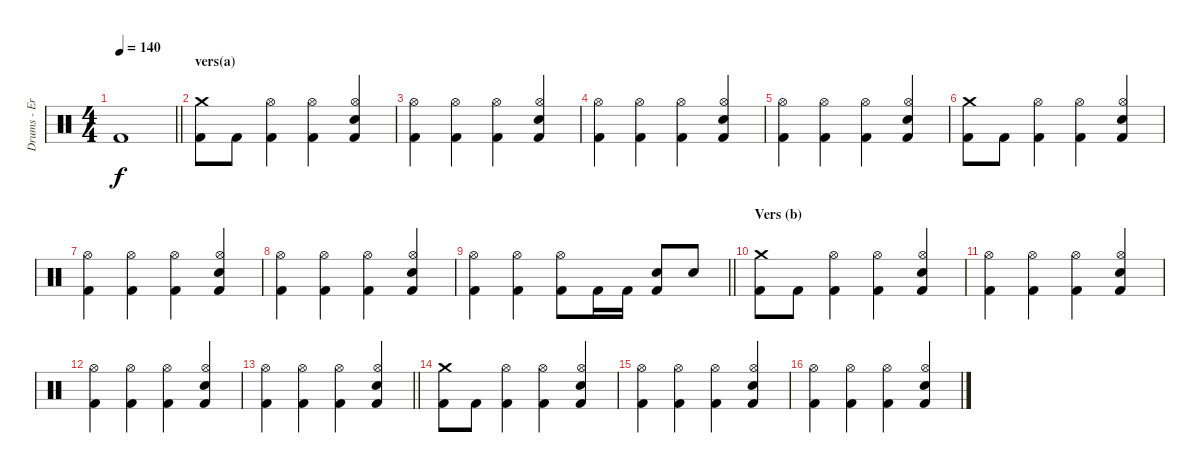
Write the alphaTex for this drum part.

\track ("Drums - Eric Young" "Drums - Er") {instrument percussion}
\staff {score}
\articulation defaults
\ts (4 4)
\tempo 140
\clef neutral
\barLineRight lightlight
\ks c "Kick (hit) 2".1{dy f}
|
\section ("" "vers(a)")
("Crash medium (hit)" "Kick (hit) 2").8 "Kick (hit) 2".8 ("Hi-Hat (open)" "Kick (hit) 2").4 ("Hi-Hat (open)" "Kick (hit) 2").4 ("Hi-Hat (open)" "Electric Snare (hit)" "Kick (hit) 2").4 |
("Hi-Hat (open)" "Kick (hit) 2").4 ("Hi-Hat (open)" "Kick (hit) 2").4 ("Hi-Hat (open)" "Kick (hit) 2").4 ("Hi-Hat (open)" "Electric Snare (hit)" "Kick (hit) 2").4 |
("Hi-Hat (open)" "Kick (hit) 2").4 ("Hi-Hat (open)" "Kick (hit) 2").4 ("Hi-Hat (open)" "Kick (hit) 2").4 ("Hi-Hat (open)" "Electric Snare (hit)" "Kick (hit) 2").4 |
("Hi-Hat (open)" "Kick (hit) 2").4 ("Hi-Hat (open)" "Kick (hit) 2").4 ("Hi-Hat (open)" "Kick (hit) 2").4 ("Hi-Hat (open)" "Electric Snare (hit)" "Kick (hit) 2").4 |
("Crash medium (hit)" "Kick (hit) 2").8 "Kick (hit) 2".8 ("Hi-Hat (open)" "Kick (hit) 2").4 ("Hi-Hat (open)" "Kick (hit) 2").4 ("Hi-Hat (open)" "Electric Snare (hit)" "Kick (hit) 2").4 |
("Hi-Hat (open)" "Kick (hit) 2").4 ("Hi-Hat (open)" "Kick (hit) 2").4 ("Hi-Hat (open)" "Kick (hit) 2").4 ("Hi-Hat (open)" "Electric Snare (hit)" "Kick (hit) 2").4 |
("Hi-Hat (open)" "Kick (hit) 2").4 ("Hi-Hat (open)" "Kick (hit) 2").4 ("Hi-Hat (open)" "Kick (hit) 2").4 ("Hi-Hat (open)" "Electric Snare (hit)" "Kick (hit) 2").4 |
\barLineRight lightlight
("Hi-Hat (open)" "Kick (hit) 2").4 ("Hi-Hat (open)" "Kick (hit) 2").4 ("Hi-Hat (open)" "Kick (hit) 2").8 "Kick (hit) 2".16 "Kick (hit) 2".16 ("Electric Snare (hit)" "Kick (hit) 2").8 "Electric Snare (hit)".8 |
\section ("" "Vers (b)")
("Crash medium (hit)" "Kick (hit) 2").8 "Kick (hit) 2".8 ("Hi-Hat (open)" "Kick (hit) 2").4 ("Hi-Hat (open)" "Kick (hit) 2").4 ("Hi-Hat (open)" "Electric Snare (hit)" "Kick (hit) 2").4 |
("Hi-Hat (open)" "Kick (hit) 2").4 ("Hi-Hat (open)" "Kick (hit) 2").4 ("Hi-Hat (open)" "Kick (hit) 2").4 ("Hi-Hat (open)" "Electric Snare (hit)" "Kick (hit) 2").4 |
("Hi-Hat (open)" "Kick (hit) 2").4 ("Hi-Hat (open)" "Kick (hit) 2").4 ("Hi-Hat (open)" "Kick (hit) 2").4 ("Hi-Hat (open)" "Electric Snare (hit)" "Kick (hit) 2").4 |
\barLineRight lightlight
("Hi-Hat (open)" "Kick (hit) 2").4 ("Hi-Hat (open)" "Kick (hit) 2").4 ("Hi-Hat (open)" "Kick (hit) 2").4 ("Hi-Hat (open)" "Electric Snare (hit)" "Kick (hit) 2").4 |
("Crash medium (hit)" "Kick (hit) 2").8 "Kick (hit) 2".8 ("Hi-Hat (open)" "Kick (hit) 2").4 ("Hi-Hat (open)" "Kick (hit) 2").4 ("Hi-Hat (open)" "Electric Snare (hit)" "Kick (hit) 2").4 |
("Hi-Hat (open)" "Kick (hit) 2").4 ("Hi-Hat (open)" "Kick (hit) 2").4 ("Hi-Hat (open)" "Kick (hit) 2").4 ("Hi-Hat (open)" "Electric Snare (hit)" "Kick (hit) 2").4 |
("Hi-Hat (open)" "Kick (hit) 2").4 ("Hi-Hat (open)" "Kick (hit) 2").4 ("Hi-Hat (open)" "Kick (hit) 2").4 ("Hi-Hat (open)" "Electric Snare (hit)" "Kick (hit) 2").4
